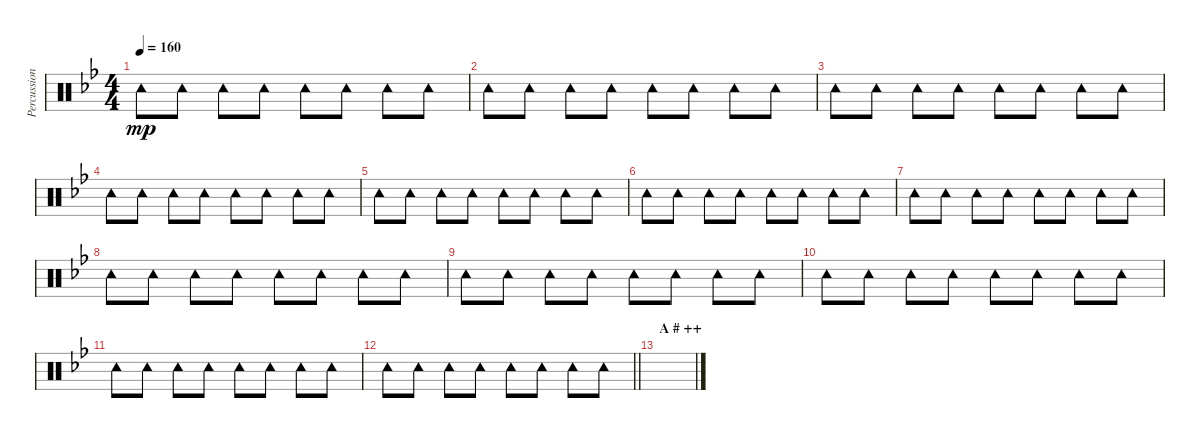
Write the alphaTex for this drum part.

\track ("Percussion (Tainaka Ritsu)" "Percussion") {instrument percussion}
\staff {score}
\articulation defaults
\ts (4 4)
\tempo 160
\clef neutral
\ks bb "Tambourine (hit)".8{dy mp} "Tambourine (hit)".8 "Tambourine (hit)".8 "Tambourine (hit)".8 "Tambourine (hit)".8 "Tambourine (hit)".8 "Tambourine (hit)".8 "Tambourine (hit)".8
|
"Tambourine (hit)".8 "Tambourine (hit)".8 "Tambourine (hit)".8 "Tambourine (hit)".8 "Tambourine (hit)".8 "Tambourine (hit)".8 "Tambourine (hit)".8 "Tambourine (hit)".8 |
"Tambourine (hit)".8 "Tambourine (hit)".8 "Tambourine (hit)".8 "Tambourine (hit)".8 "Tambourine (hit)".8 "Tambourine (hit)".8 "Tambourine (hit)".8 "Tambourine (hit)".8 |
"Tambourine (hit)".8 "Tambourine (hit)".8 "Tambourine (hit)".8 "Tambourine (hit)".8 "Tambourine (hit)".8 "Tambourine (hit)".8 "Tambourine (hit)".8 "Tambourine (hit)".8 |
"Tambourine (hit)".8 "Tambourine (hit)".8 "Tambourine (hit)".8 "Tambourine (hit)".8 "Tambourine (hit)".8 "Tambourine (hit)".8 "Tambourine (hit)".8 "Tambourine (hit)".8 |
"Tambourine (hit)".8 "Tambourine (hit)".8 "Tambourine (hit)".8 "Tambourine (hit)".8 "Tambourine (hit)".8 "Tambourine (hit)".8 "Tambourine (hit)".8 "Tambourine (hit)".8 |
"Tambourine (hit)".8 "Tambourine (hit)".8 "Tambourine (hit)".8 "Tambourine (hit)".8 "Tambourine (hit)".8 "Tambourine (hit)".8 "Tambourine (hit)".8 "Tambourine (hit)".8 |
"Tambourine (hit)".8 "Tambourine (hit)".8 "Tambourine (hit)".8 "Tambourine (hit)".8 "Tambourine (hit)".8 "Tambourine (hit)".8 "Tambourine (hit)".8 "Tambourine (hit)".8 |
"Tambourine (hit)".8 "Tambourine (hit)".8 "Tambourine (hit)".8 "Tambourine (hit)".8 "Tambourine (hit)".8 "Tambourine (hit)".8 "Tambourine (hit)".8 "Tambourine (hit)".8 |
"Tambourine (hit)".8 "Tambourine (hit)".8 "Tambourine (hit)".8 "Tambourine (hit)".8 "Tambourine (hit)".8 "Tambourine (hit)".8 "Tambourine (hit)".8 "Tambourine (hit)".8 |
"Tambourine (hit)".8 "Tambourine (hit)".8 "Tambourine (hit)".8 "Tambourine (hit)".8 "Tambourine (hit)".8 "Tambourine (hit)".8 "Tambourine (hit)".8 "Tambourine (hit)".8 |
\barLineRight lightlight "Tambourine (hit)".8 "Tambourine (hit)".8 "Tambourine (hit)".8 "Tambourine (hit)".8 "Tambourine (hit)".8 "Tambourine (hit)".8 "Tambourine (hit)".8 "Tambourine (hit)".8
|
\section ("" "A # ++")
